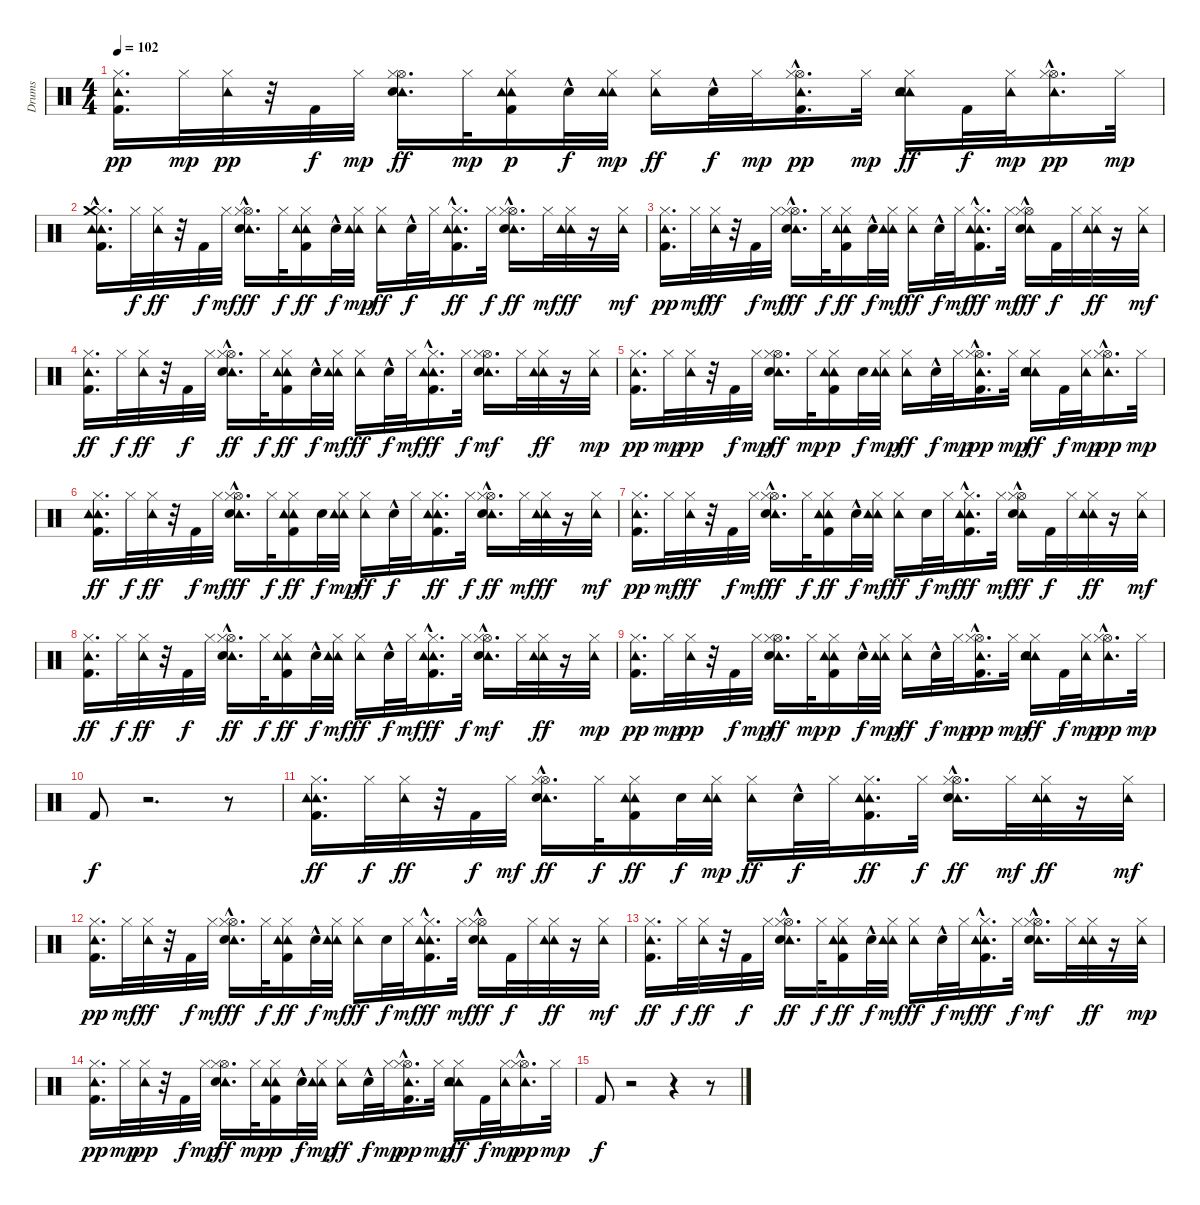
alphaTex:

\track ("Drums" "Drums") {instrument percussion}
\staff {score}
\articulation defaults
\ts (4 4)
\tempo 102
\clef neutral
\ks c
("Tambourine (hit)" "Hi-Hat (closed)" "Kick (hit) 2").16{d dy pp} "Hi-Hat (closed)".32{dy mp} ("Tambourine (hit)" "Hi-Hat (closed)").32{dy pp} r.32 "Kick (hit) 2".32{dy f} "Hi-Hat (closed)".32{dy mp} ("Tambourine (hit)" "Hi-Hat (open)" "Hi-Hat (closed)" "Electric Snare (hit)").16{d dy ff} "Hi-Hat (closed)".32{dy mp} ("Tambourine (hit)" "Tambourine (hit)" "Hi-Hat (closed)" "Kick (hit) 2").16{dy p} "Snare (hit) 2"{hac}.32{dy f} ("Tambourine (hit)" "Tambourine (hit)" "Hi-Hat (closed)").32{dy mp} ("Tambourine (hit)" "Hi-Hat (closed)").16{dy ff} "Snare (hit) 2"{hac}.32{dy f} "Hi-Hat (closed)".32{dy mp} ("Tambourine (hit)"{hac} "Hi-Hat (open)"{hac} "Hi-Hat (closed)" "Kick (hit) 2"{hac}).16{d dy pp} "Hi-Hat (closed)".32{dy mp} ("Tambourine (hit)" "Tambourine (hit)" "Hi-Hat (closed)" "Electric Snare (hit)").16{dy ff} "Kick (hit) 2".32{dy f} ("Tambourine (hit)" "Hi-Hat (closed)").32{dy mp} ("Tambourine (hit)"{hac} "Hi-Hat (open)" "Hi-Hat (closed)").16{d dy pp} "Hi-Hat (closed)".32{dy mp} |
("Tambourine (hit)" "Tambourine (hit)" "Hi-Hat (closed)" "Kick (hit) 2" "Crash medium (hit)"{hac}).16{d} "Hi-Hat (closed)".32{dy f} ("Tambourine (hit)" "Hi-Hat (closed)").32{dy ff} r.32 "Kick (hit) 2".32{dy f} "Hi-Hat (closed)".32{dy mf} ("Tambourine (hit)" "Hi-Hat (open)"{hac} "Electric Snare (hit)" "Hi-Hat (closed)").16{d dy ff} "Hi-Hat (closed)".32{dy f} ("Tambourine (hit)" "Tambourine (hit)" "Hi-Hat (closed)" "Kick (hit) 2").16{dy ff} "Snare (hit) 2"{hac}.32{dy f} ("Tambourine (hit)" "Tambourine (hit)" "Hi-Hat (closed)").32{dy mp} ("Tambourine (hit)" "Hi-Hat (closed)").16{dy ff} "Snare (hit) 2"{hac}.32{dy f} "Hi-Hat (closed)".32 ("Tambourine (hit)" "Tambourine (hit)" "Hi-Hat (closed)" "Kick (hit) 2"{hac}).16{d dy ff} "Hi-Hat (closed)".32{dy f} ("Tambourine (hit)" "Hi-Hat (open)"{hac} "Electric Snare (hit)"{hac} "Hi-Hat (closed)").16{d dy ff} "Hi-Hat (closed)".32{dy mf} ("Tambourine (hit)" "Tambourine (hit)" "Hi-Hat (closed)").32{dy ff} r.16 ("Tambourine (hit)" "Hi-Hat (closed)").32{dy mf} |
("Tambourine (hit)" "Hi-Hat (closed)" "Kick (hit) 2").16{d dy pp} "Hi-Hat (closed)".32{dy mf} ("Tambourine (hit)" "Hi-Hat (closed)").32{dy ff} r.32 "Kick (hit) 2".32{dy f} "Hi-Hat (closed)".32{dy mf} ("Tambourine (hit)" "Hi-Hat (open)"{hac} "Electric Snare (hit)" "Hi-Hat (closed)").16{d dy ff} "Hi-Hat (closed)".32{dy f} ("Tambourine (hit)" "Tambourine (hit)" "Hi-Hat (closed)" "Kick (hit) 2").16{dy ff} "Snare (hit) 2"{hac}.32{dy f} ("Tambourine (hit)" "Tambourine (hit)" "Hi-Hat (closed)").32{dy mf} ("Tambourine (hit)" "Hi-Hat (closed)").16{dy ff} "Snare (hit) 2"{hac}.32{dy f} "Hi-Hat (closed)".32{dy mf} ("Tambourine (hit)" "Tambourine (hit)" "Hi-Hat (closed)" "Kick (hit) 2"{hac}).16{d dy ff} "Hi-Hat (closed)".32{dy mf} ("Tambourine (hit)" "Hi-Hat (open)"{hac} "Electric Snare (hit)" "Hi-Hat (closed)").16{dy ff} "Kick (hit) 2".32{dy f} "Hi-Hat (closed)".32 ("Tambourine (hit)" "Tambourine (hit)" "Hi-Hat (closed)").32{dy ff} r.16 ("Tambourine (hit)" "Hi-Hat (closed)").32{dy mf} |
("Tambourine (hit)" "Hi-Hat (closed)" "Kick (hit) 2").16{d dy ff} "Hi-Hat (closed)".32{dy f} ("Tambourine (hit)" "Hi-Hat (closed)").32{dy ff} r.32 "Kick (hit) 2".32{dy f} "Hi-Hat (closed)".32 ("Tambourine (hit)" "Hi-Hat (open)"{hac} "Electric Snare (hit)" "Hi-Hat (closed)").16{d dy ff} "Hi-Hat (closed)".32{dy f} ("Tambourine (hit)" "Tambourine (hit)" "Hi-Hat (closed)" "Kick (hit) 2").16{dy ff} "Snare (hit) 2"{hac}.32{dy f} ("Tambourine (hit)" "Tambourine (hit)" "Hi-Hat (closed)").32{dy mf} ("Tambourine (hit)" "Hi-Hat (closed)").16{dy ff} "Snare (hit) 2"{hac}.32{dy f} "Hi-Hat (closed)".32{dy mf} ("Tambourine (hit)" "Tambourine (hit)" "Hi-Hat (closed)" "Kick (hit) 2"{hac}).16{d dy ff} "Hi-Hat (closed)".32{dy f} ("Tambourine (hit)" "Hi-Hat (open)" "Electric Snare (hit)" "Hi-Hat (closed)").16{d dy mf} "Hi-Hat (closed)".32 ("Tambourine (hit)" "Tambourine (hit)" "Hi-Hat (closed)").32{dy ff} r.16 ("Tambourine (hit)" "Hi-Hat (closed)").32{dy mp} |
("Tambourine (hit)" "Hi-Hat (closed)" "Kick (hit) 2").16{d dy pp} "Hi-Hat (closed)".32{dy mp} ("Tambourine (hit)" "Hi-Hat (closed)").32{dy pp} r.32 "Kick (hit) 2".32{dy f} "Hi-Hat (closed)".32{dy mp} ("Tambourine (hit)" "Hi-Hat (open)" "Electric Snare (hit)" "Hi-Hat (closed)").16{d dy ff} "Hi-Hat (closed)".32{dy mp} ("Tambourine (hit)" "Tambourine (hit)" "Hi-Hat (closed)" "Kick (hit) 2").16{dy p} "Snare (hit) 2".32{dy f} ("Tambourine (hit)" "Tambourine (hit)" "Hi-Hat (closed)").32{dy mp} ("Tambourine (hit)" "Hi-Hat (closed)").16{dy ff} "Snare (hit) 2"{hac}.32{dy f} "Hi-Hat (closed)".32{dy mp} ("Tambourine (hit)"{hac} "Hi-Hat (open)"{hac} "Hi-Hat (closed)" "Kick (hit) 2"{hac}).16{d dy pp} "Hi-Hat (closed)".32{dy mp} ("Tambourine (hit)" "Tambourine (hit)" "Electric Snare (hit)" "Hi-Hat (closed)").16{dy ff} "Kick (hit) 2".32{dy f} ("Tambourine (hit)" "Hi-Hat (closed)").32{dy mp} ("Tambourine (hit)"{hac} "Hi-Hat (open)" "Hi-Hat (closed)").16{d dy pp} "Hi-Hat (closed)".32{dy mp} |
("Tambourine (hit)" "Tambourine (hit)" "Hi-Hat (closed)" "Kick (hit) 2").16{d dy ff} "Hi-Hat (closed)".32{dy f} ("Tambourine (hit)" "Hi-Hat (closed)").32{dy ff} r.32 "Kick (hit) 2".32{dy f} "Hi-Hat (closed)".32{dy mf} ("Tambourine (hit)" "Hi-Hat (open)"{hac} "Electric Snare (hit)" "Hi-Hat (closed)").16{d dy ff} "Hi-Hat (closed)".32{dy f} ("Tambourine (hit)" "Tambourine (hit)" "Hi-Hat (closed)" "Kick (hit) 2").16{dy ff} "Snare (hit) 2".32{dy f} ("Tambourine (hit)" "Tambourine (hit)" "Hi-Hat (closed)").32{dy mp} ("Tambourine (hit)" "Hi-Hat (closed)").16{dy ff} "Snare (hit) 2"{hac}.32{dy f} "Hi-Hat (closed)".32 ("Tambourine (hit)" "Tambourine (hit)" "Hi-Hat (closed)" "Kick (hit) 2").16{d dy ff} "Hi-Hat (closed)".32{dy f} ("Tambourine (hit)" "Hi-Hat (open)"{hac} "Electric Snare (hit)"{hac} "Hi-Hat (closed)").16{d dy ff} "Hi-Hat (closed)".32{dy mf} ("Tambourine (hit)" "Tambourine (hit)" "Hi-Hat (closed)").32{dy ff} r.16 ("Tambourine (hit)" "Hi-Hat (closed)").32{dy mf} |
("Tambourine (hit)" "Hi-Hat (closed)" "Kick (hit) 2").16{d dy pp} "Hi-Hat (closed)".32{dy mf} ("Tambourine (hit)" "Hi-Hat (closed)").32{dy ff} r.32 "Kick (hit) 2".32{dy f} "Hi-Hat (closed)".32{dy mf} ("Tambourine (hit)" "Hi-Hat (open)"{hac} "Electric Snare (hit)" "Hi-Hat (closed)").16{d dy ff} "Hi-Hat (closed)".32{dy f} ("Tambourine (hit)" "Tambourine (hit)" "Hi-Hat (closed)" "Kick (hit) 2").16{dy ff} "Snare (hit) 2"{hac}.32{dy f} ("Tambourine (hit)" "Tambourine (hit)" "Hi-Hat (closed)").32{dy mf} ("Tambourine (hit)" "Hi-Hat (closed)").16{dy ff} "Snare (hit) 2".32{dy f} "Hi-Hat (closed)".32{dy mf} ("Tambourine (hit)" "Tambourine (hit)" "Hi-Hat (closed)" "Kick (hit) 2"{hac}).16{d dy ff} "Hi-Hat (closed)".32{dy mf} ("Tambourine (hit)" "Hi-Hat (open)"{hac} "Electric Snare (hit)" "Hi-Hat (closed)").16{dy ff} "Kick (hit) 2".32{dy f} "Hi-Hat (closed)".32 ("Tambourine (hit)" "Tambourine (hit)" "Hi-Hat (closed)").32{dy ff} r.16 ("Tambourine (hit)" "Hi-Hat (closed)").32{dy mf} |
("Tambourine (hit)" "Hi-Hat (closed)" "Kick (hit) 2").16{d dy ff} "Hi-Hat (closed)".32{dy f} ("Tambourine (hit)" "Hi-Hat (closed)").32{dy ff} r.32 "Kick (hit) 2".32{dy f} "Hi-Hat (closed)".32 ("Tambourine (hit)" "Hi-Hat (open)"{hac} "Hi-Hat (closed)" "Electric Snare (hit)").16{d dy ff} "Hi-Hat (closed)".32{dy f} ("Tambourine (hit)" "Tambourine (hit)" "Hi-Hat (closed)" "Kick (hit) 2").16{dy ff} "Snare (hit) 2"{hac}.32{dy f} ("Tambourine (hit)" "Tambourine (hit)" "Hi-Hat (closed)").32{dy mf} ("Tambourine (hit)" "Hi-Hat (closed)").16{dy ff} "Snare (hit) 2"{hac}.32{dy f} "Hi-Hat (closed)".32{dy mf} ("Tambourine (hit)" "Tambourine (hit)" "Hi-Hat (closed)" "Kick (hit) 2"{hac}).16{d dy ff} "Hi-Hat (closed)".32{dy f} ("Tambourine (hit)" "Hi-Hat (open)" "Hi-Hat (closed)" "Electric Snare (hit)"{hac}).16{d dy mf} "Hi-Hat (closed)".32 ("Tambourine (hit)" "Tambourine (hit)" "Hi-Hat (closed)").32{dy ff} r.16 ("Tambourine (hit)" "Hi-Hat (closed)").32{dy mp} |
("Tambourine (hit)" "Hi-Hat (closed)" "Kick (hit) 2").16{d dy pp} "Hi-Hat (closed)".32{dy mp} ("Tambourine (hit)" "Hi-Hat (closed)").32{dy pp} r.32 "Kick (hit) 2".32{dy f} "Hi-Hat (closed)".32{dy mp} ("Tambourine (hit)" "Hi-Hat (open)" "Hi-Hat (closed)" "Electric Snare (hit)").16{d dy ff} "Hi-Hat (closed)".32{dy mp} ("Tambourine (hit)" "Tambourine (hit)" "Hi-Hat (closed)" "Kick (hit) 2").16{dy p} "Snare (hit) 2"{hac}.32{dy f} ("Tambourine (hit)" "Tambourine (hit)" "Hi-Hat (closed)").32{dy mp} ("Tambourine (hit)" "Hi-Hat (closed)").16{dy ff} "Snare (hit) 2"{hac}.32{dy f} "Hi-Hat (closed)".32{dy mp} ("Tambourine (hit)"{hac} "Hi-Hat (open)"{hac} "Hi-Hat (closed)" "Kick (hit) 2"{hac}).16{d dy pp} "Hi-Hat (closed)".32{dy mp} ("Tambourine (hit)" "Tambourine (hit)" "Hi-Hat (closed)" "Electric Snare (hit)").16{dy ff} "Kick (hit) 2".32{dy f} ("Tambourine (hit)" "Hi-Hat (closed)").32{dy mp} ("Tambourine (hit)"{hac} "Hi-Hat (open)" "Hi-Hat (closed)").16{d dy pp} "Hi-Hat (closed)".32{dy mp} |
"Kick (hit) 2".8{dy f} r.2{d} r.8 |
("Tambourine (hit)" "Tambourine (hit)" "Hi-Hat (closed)" "Kick (hit) 2").16{d dy ff} "Hi-Hat (closed)".32{dy f} ("Tambourine (hit)" "Hi-Hat (closed)").32{dy ff} r.32 "Kick (hit) 2".32{dy f} "Hi-Hat (closed)".32{dy mf} ("Tambourine (hit)" "Hi-Hat (open)"{hac} "Electric Snare (hit)" "Hi-Hat (closed)").16{d dy ff} "Hi-Hat (closed)".32{dy f} ("Tambourine (hit)" "Tambourine (hit)" "Hi-Hat (closed)" "Kick (hit) 2").16{dy ff} "Snare (hit) 2".32{dy f} ("Tambourine (hit)" "Tambourine (hit)" "Hi-Hat (closed)").32{dy mp} ("Tambourine (hit)" "Hi-Hat (closed)").16{dy ff} "Snare (hit) 2"{hac}.32{dy f} "Hi-Hat (closed)".32 ("Tambourine (hit)" "Tambourine (hit)" "Hi-Hat (closed)" "Kick (hit) 2").16{d dy ff} "Hi-Hat (closed)".32{dy f} ("Tambourine (hit)" "Hi-Hat (open)"{hac} "Electric Snare (hit)"{hac} "Hi-Hat (closed)").16{d dy ff} "Hi-Hat (closed)".32{dy mf} ("Tambourine (hit)" "Tambourine (hit)" "Hi-Hat (closed)").32{dy ff} r.16 ("Tambourine (hit)" "Hi-Hat (closed)").32{dy mf} |
("Tambourine (hit)" "Hi-Hat (closed)" "Kick (hit) 2").16{d dy pp} "Hi-Hat (closed)".32{dy mf} ("Tambourine (hit)" "Hi-Hat (closed)").32{dy ff} r.32 "Kick (hit) 2".32{dy f} "Hi-Hat (closed)".32{dy mf} ("Tambourine (hit)" "Hi-Hat (open)"{hac} "Electric Snare (hit)" "Hi-Hat (closed)").16{d dy ff} "Hi-Hat (closed)".32{dy f} ("Tambourine (hit)" "Tambourine (hit)" "Hi-Hat (closed)" "Kick (hit) 2").16{dy ff} "Snare (hit) 2"{hac}.32{dy f} ("Tambourine (hit)" "Tambourine (hit)" "Hi-Hat (closed)").32{dy mf} ("Tambourine (hit)" "Hi-Hat (closed)").16{dy ff} "Snare (hit) 2".32{dy f} "Hi-Hat (closed)".32{dy mf} ("Tambourine (hit)" "Tambourine (hit)" "Hi-Hat (closed)" "Kick (hit) 2"{hac}).16{d dy ff} "Hi-Hat (closed)".32{dy mf} ("Tambourine (hit)" "Hi-Hat (open)"{hac} "Electric Snare (hit)" "Hi-Hat (closed)").16{dy ff} "Kick (hit) 2".32{dy f} "Hi-Hat (closed)".32 ("Tambourine (hit)" "Tambourine (hit)" "Hi-Hat (closed)").32{dy ff} r.16 ("Tambourine (hit)" "Hi-Hat (closed)").32{dy mf} |
("Tambourine (hit)" "Kick (hit) 2" "Hi-Hat (closed)").16{d dy ff} "Hi-Hat (closed)".32{dy f} ("Tambourine (hit)" "Hi-Hat (closed)").32{dy ff} r.32 "Kick (hit) 2".32{dy f} "Hi-Hat (closed)".32 ("Tambourine (hit)" "Hi-Hat (open)"{hac} "Hi-Hat (closed)" "Electric Snare (hit)").16{d dy ff} "Hi-Hat (closed)".32{dy f} ("Tambourine (hit)" "Kick (hit) 2" "Tambourine (hit)" "Hi-Hat (closed)").16{dy ff} "Snare (hit) 2"{hac}.32{dy f} ("Tambourine (hit)" "Tambourine (hit)" "Hi-Hat (closed)").32{dy mf} ("Tambourine (hit)" "Hi-Hat (closed)").16{dy ff} "Snare (hit) 2"{hac}.32{dy f} "Hi-Hat (closed)".32{dy mf} ("Tambourine (hit)" "Kick (hit) 2"{hac} "Tambourine (hit)" "Hi-Hat (closed)").16{d dy ff} "Hi-Hat (closed)".32{dy f} ("Tambourine (hit)" "Hi-Hat (open)" "Hi-Hat (closed)" "Electric Snare (hit)"{hac}).16{d dy mf} "Hi-Hat (closed)".32 ("Tambourine (hit)" "Tambourine (hit)" "Hi-Hat (closed)").32{dy ff} r.16 ("Tambourine (hit)" "Hi-Hat (closed)").32{dy mp} |
("Tambourine (hit)" "Kick (hit) 2" "Hi-Hat (closed)").16{d dy pp} "Hi-Hat (closed)".32{dy mp} ("Tambourine (hit)" "Hi-Hat (closed)").32{dy pp} r.32 "Kick (hit) 2".32{dy f} "Hi-Hat (closed)".32{dy mp} ("Tambourine (hit)" "Hi-Hat (open)" "Hi-Hat (closed)" "Electric Snare (hit)").16{d dy ff} "Hi-Hat (closed)".32{dy mp} ("Tambourine (hit)" "Kick (hit) 2" "Tambourine (hit)" "Hi-Hat (closed)").16{dy p} "Snare (hit) 2"{hac}.32{dy f} ("Tambourine (hit)" "Tambourine (hit)" "Hi-Hat (closed)").32{dy mp} ("Tambourine (hit)" "Hi-Hat (closed)").16{dy ff} "Snare (hit) 2"{hac}.32{dy f} "Hi-Hat (closed)".32{dy mp} ("Tambourine (hit)"{hac} "Kick (hit) 2"{hac} "Hi-Hat (open)"{hac} "Hi-Hat (closed)").16{d dy pp} "Hi-Hat (closed)".32{dy mp} ("Tambourine (hit)" "Tambourine (hit)" "Hi-Hat (closed)" "Electric Snare (hit)").16{dy ff} "Kick (hit) 2".32{dy f} ("Tambourine (hit)" "Hi-Hat (closed)").32{dy mp} ("Tambourine (hit)"{hac} "Hi-Hat (open)" "Hi-Hat (closed)").16{d dy pp} "Hi-Hat (closed)".32{dy mp} |
"Kick (hit) 2".8{dy f} r.2 r.4 r.8
